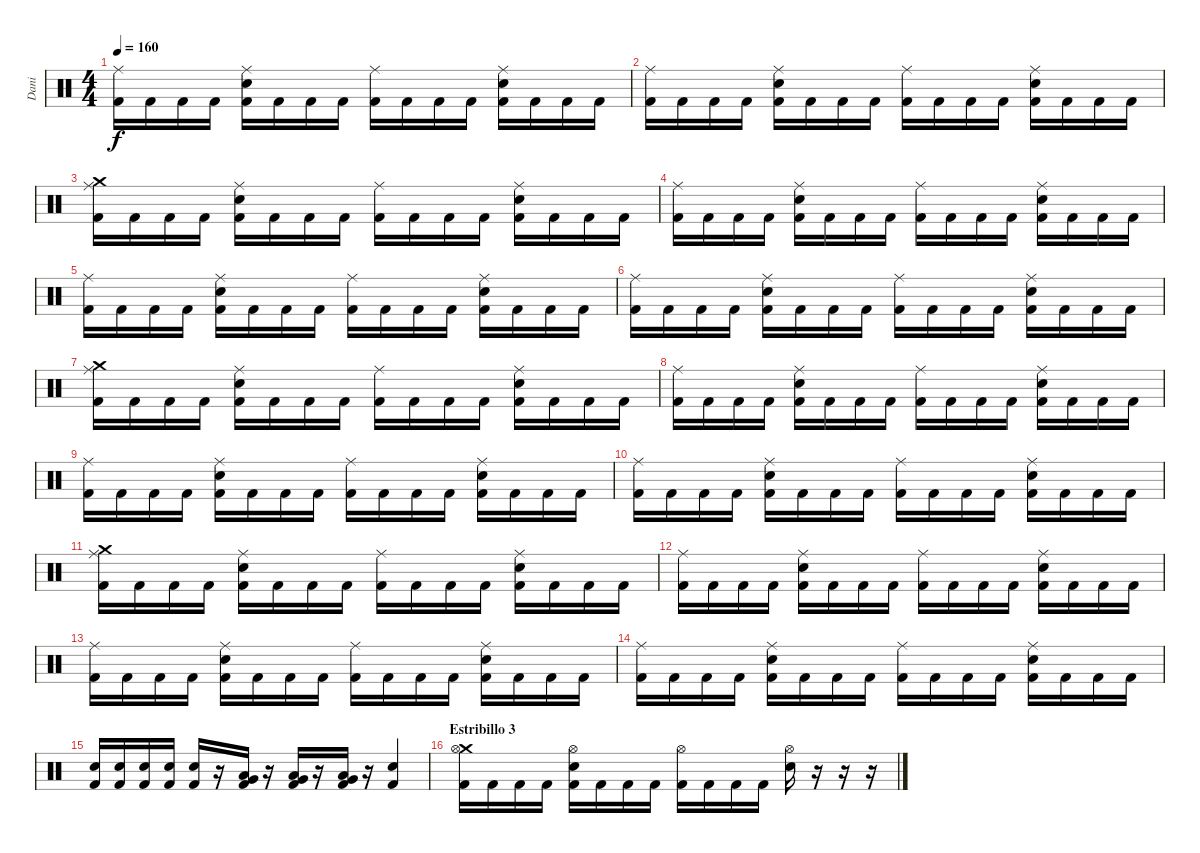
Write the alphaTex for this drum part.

\track ("Dani" "Dani") {instrument percussion}
\staff {score}
\articulation defaults
\ts (4 4)
\tempo 160
\clef neutral
\ks c
("Ride (middle)" "Kick (hit) 2").16{dy f} "Kick (hit) 2".16 "Kick (hit) 2".16 "Kick (hit) 2".16 ("Ride (middle)" "Electric Snare (hit)" "Kick (hit) 2").16 "Kick (hit) 2".16 "Kick (hit) 2".16 "Kick (hit) 2".16 ("Ride (middle)" "Kick (hit) 2").16 "Kick (hit) 2".16 "Kick (hit) 2".16 "Kick (hit) 2".16 ("Ride (middle)" "Electric Snare (hit)" "Kick (hit) 2").16 "Kick (hit) 2".16 "Kick (hit) 2".16 "Kick (hit) 2".16 |
("Ride (middle)" "Kick (hit) 2").16 "Kick (hit) 2".16 "Kick (hit) 2".16 "Kick (hit) 2".16 ("Ride (middle)" "Electric Snare (hit)" "Kick (hit) 2").16 "Kick (hit) 2".16 "Kick (hit) 2".16 "Kick (hit) 2".16 ("Ride (middle)" "Kick (hit) 2").16 "Kick (hit) 2".16 "Kick (hit) 2".16 "Kick (hit) 2".16 ("Ride (middle)" "Electric Snare (hit)" "Kick (hit) 2").16 "Kick (hit) 2".16 "Kick (hit) 2".16 "Kick (hit) 2".16 |
("Crash medium (hit)" "Ride (middle)" "Kick (hit) 2").16 "Kick (hit) 2".16 "Kick (hit) 2".16 "Kick (hit) 2".16 ("Ride (middle)" "Electric Snare (hit)" "Kick (hit) 2").16 "Kick (hit) 2".16 "Kick (hit) 2".16 "Kick (hit) 2".16 ("Ride (middle)" "Kick (hit) 2").16 "Kick (hit) 2".16 "Kick (hit) 2".16 "Kick (hit) 2".16 ("Ride (middle)" "Electric Snare (hit)" "Kick (hit) 2").16 "Kick (hit) 2".16 "Kick (hit) 2".16 "Kick (hit) 2".16 |
("Ride (middle)" "Kick (hit) 2").16 "Kick (hit) 2".16 "Kick (hit) 2".16 "Kick (hit) 2".16 ("Ride (middle)" "Electric Snare (hit)" "Kick (hit) 2").16 "Kick (hit) 2".16 "Kick (hit) 2".16 "Kick (hit) 2".16 ("Ride (middle)" "Kick (hit) 2").16 "Kick (hit) 2".16 "Kick (hit) 2".16 "Kick (hit) 2".16 ("Ride (middle)" "Electric Snare (hit)" "Kick (hit) 2").16 "Kick (hit) 2".16 "Kick (hit) 2".16 "Kick (hit) 2".16 |
("Ride (middle)" "Kick (hit) 2").16 "Kick (hit) 2".16 "Kick (hit) 2".16 "Kick (hit) 2".16 ("Ride (middle)" "Electric Snare (hit)" "Kick (hit) 2").16 "Kick (hit) 2".16 "Kick (hit) 2".16 "Kick (hit) 2".16 ("Ride (middle)" "Kick (hit) 2").16 "Kick (hit) 2".16 "Kick (hit) 2".16 "Kick (hit) 2".16 ("Ride (middle)" "Electric Snare (hit)" "Kick (hit) 2").16 "Kick (hit) 2".16 "Kick (hit) 2".16 "Kick (hit) 2".16 |
("Ride (middle)" "Kick (hit) 2").16 "Kick (hit) 2".16 "Kick (hit) 2".16 "Kick (hit) 2".16 ("Ride (middle)" "Electric Snare (hit)" "Kick (hit) 2").16 "Kick (hit) 2".16 "Kick (hit) 2".16 "Kick (hit) 2".16 ("Ride (middle)" "Kick (hit) 2").16 "Kick (hit) 2".16 "Kick (hit) 2".16 "Kick (hit) 2".16 ("Ride (middle)" "Electric Snare (hit)" "Kick (hit) 2").16 "Kick (hit) 2".16 "Kick (hit) 2".16 "Kick (hit) 2".16 |
("Crash medium (hit)" "Ride (middle)" "Kick (hit) 2").16 "Kick (hit) 2".16 "Kick (hit) 2".16 "Kick (hit) 2".16 ("Ride (middle)" "Electric Snare (hit)" "Kick (hit) 2").16 "Kick (hit) 2".16 "Kick (hit) 2".16 "Kick (hit) 2".16 ("Ride (middle)" "Kick (hit) 2").16 "Kick (hit) 2".16 "Kick (hit) 2".16 "Kick (hit) 2".16 ("Ride (middle)" "Electric Snare (hit)" "Kick (hit) 2").16 "Kick (hit) 2".16 "Kick (hit) 2".16 "Kick (hit) 2".16 |
("Ride (middle)" "Kick (hit) 2").16 "Kick (hit) 2".16 "Kick (hit) 2".16 "Kick (hit) 2".16 ("Ride (middle)" "Electric Snare (hit)" "Kick (hit) 2").16 "Kick (hit) 2".16 "Kick (hit) 2".16 "Kick (hit) 2".16 ("Ride (middle)" "Kick (hit) 2").16 "Kick (hit) 2".16 "Kick (hit) 2".16 "Kick (hit) 2".16 ("Ride (middle)" "Electric Snare (hit)" "Kick (hit) 2").16 "Kick (hit) 2".16 "Kick (hit) 2".16 "Kick (hit) 2".16 |
("Ride (middle)" "Kick (hit) 2").16 "Kick (hit) 2".16 "Kick (hit) 2".16 "Kick (hit) 2".16 ("Ride (middle)" "Electric Snare (hit)" "Kick (hit) 2").16 "Kick (hit) 2".16 "Kick (hit) 2".16 "Kick (hit) 2".16 ("Ride (middle)" "Kick (hit) 2").16 "Kick (hit) 2".16 "Kick (hit) 2".16 "Kick (hit) 2".16 ("Ride (middle)" "Electric Snare (hit)" "Kick (hit) 2").16 "Kick (hit) 2".16 "Kick (hit) 2".16 "Kick (hit) 2".16 |
("Ride (middle)" "Kick (hit) 2").16 "Kick (hit) 2".16 "Kick (hit) 2".16 "Kick (hit) 2".16 ("Ride (middle)" "Electric Snare (hit)" "Kick (hit) 2").16 "Kick (hit) 2".16 "Kick (hit) 2".16 "Kick (hit) 2".16 ("Ride (middle)" "Kick (hit) 2").16 "Kick (hit) 2".16 "Kick (hit) 2".16 "Kick (hit) 2".16 ("Ride (middle)" "Electric Snare (hit)" "Kick (hit) 2").16 "Kick (hit) 2".16 "Kick (hit) 2".16 "Kick (hit) 2".16 |
("Crash medium (hit)" "Ride (middle)" "Kick (hit) 2").16 "Kick (hit) 2".16 "Kick (hit) 2".16 "Kick (hit) 2".16 ("Ride (middle)" "Electric Snare (hit)" "Kick (hit) 2").16 "Kick (hit) 2".16 "Kick (hit) 2".16 "Kick (hit) 2".16 ("Ride (middle)" "Kick (hit) 2").16 "Kick (hit) 2".16 "Kick (hit) 2".16 "Kick (hit) 2".16 ("Ride (middle)" "Electric Snare (hit)" "Kick (hit) 2").16 "Kick (hit) 2".16 "Kick (hit) 2".16 "Kick (hit) 2".16 |
("Ride (middle)" "Kick (hit) 2").16 "Kick (hit) 2".16 "Kick (hit) 2".16 "Kick (hit) 2".16 ("Ride (middle)" "Electric Snare (hit)" "Kick (hit) 2").16 "Kick (hit) 2".16 "Kick (hit) 2".16 "Kick (hit) 2".16 ("Ride (middle)" "Kick (hit) 2").16 "Kick (hit) 2".16 "Kick (hit) 2".16 "Kick (hit) 2".16 ("Ride (middle)" "Electric Snare (hit)" "Kick (hit) 2").16 "Kick (hit) 2".16 "Kick (hit) 2".16 "Kick (hit) 2".16 |
("Ride (middle)" "Kick (hit) 2").16 "Kick (hit) 2".16 "Kick (hit) 2".16 "Kick (hit) 2".16 ("Ride (middle)" "Electric Snare (hit)" "Kick (hit) 2").16 "Kick (hit) 2".16 "Kick (hit) 2".16 "Kick (hit) 2".16 ("Ride (middle)" "Kick (hit) 2").16 "Kick (hit) 2".16 "Kick (hit) 2".16 "Kick (hit) 2".16 ("Ride (middle)" "Electric Snare (hit)" "Kick (hit) 2").16 "Kick (hit) 2".16 "Kick (hit) 2".16 "Kick (hit) 2".16 |
("Ride (middle)" "Kick (hit) 2").16 "Kick (hit) 2".16 "Kick (hit) 2".16 "Kick (hit) 2".16 ("Ride (middle)" "Electric Snare (hit)" "Kick (hit) 2").16 "Kick (hit) 2".16 "Kick (hit) 2".16 "Kick (hit) 2".16 ("Ride (middle)" "Kick (hit) 2").16 "Kick (hit) 2".16 "Kick (hit) 2".16 "Kick (hit) 2".16 ("Ride (middle)" "Electric Snare (hit)" "Kick (hit) 2").16 "Kick (hit) 2".16 "Kick (hit) 2".16 "Kick (hit) 2".16 |
("Electric Snare (hit)" "Kick (hit) 2").16 ("Electric Snare (hit)" "Kick (hit) 2").16 ("Electric Snare (hit)" "Kick (hit) 2").16 ("Electric Snare (hit)" "Kick (hit) 2").16 ("Electric Snare (hit)" "Kick (hit) 2").16 r.16 ("Low Floor Tom (hit)" "Very Low Tom (hit)" "Kick (hit) 2").16 r.16 ("Low Floor Tom (hit)" "Very Low Tom (hit)" "Kick (hit) 2").16 r.16 ("Low Floor Tom (hit)" "Very Low Tom (hit)" "Kick (hit) 2").16 r.16 ("Electric Snare (hit)" "Kick (hit) 2").4 |
\section ("" "Estribillo 3")
("Crash medium (hit)" "Hi-Hat (open)" "Kick (hit) 2").16 "Kick (hit) 2".16 "Kick (hit) 2".16 "Kick (hit) 2".16 ("Hi-Hat (open)" "Electric Snare (hit)" "Kick (hit) 2").16 "Kick (hit) 2".16 "Kick (hit) 2".16 "Kick (hit) 2".16 ("Hi-Hat (open)" "Kick (hit) 2").16 "Kick (hit) 2".16 "Kick (hit) 2".16 "Kick (hit) 2".16 ("Hi-Hat (open)" "Electric Snare (hit)").16 r.16 r.16 r.16
